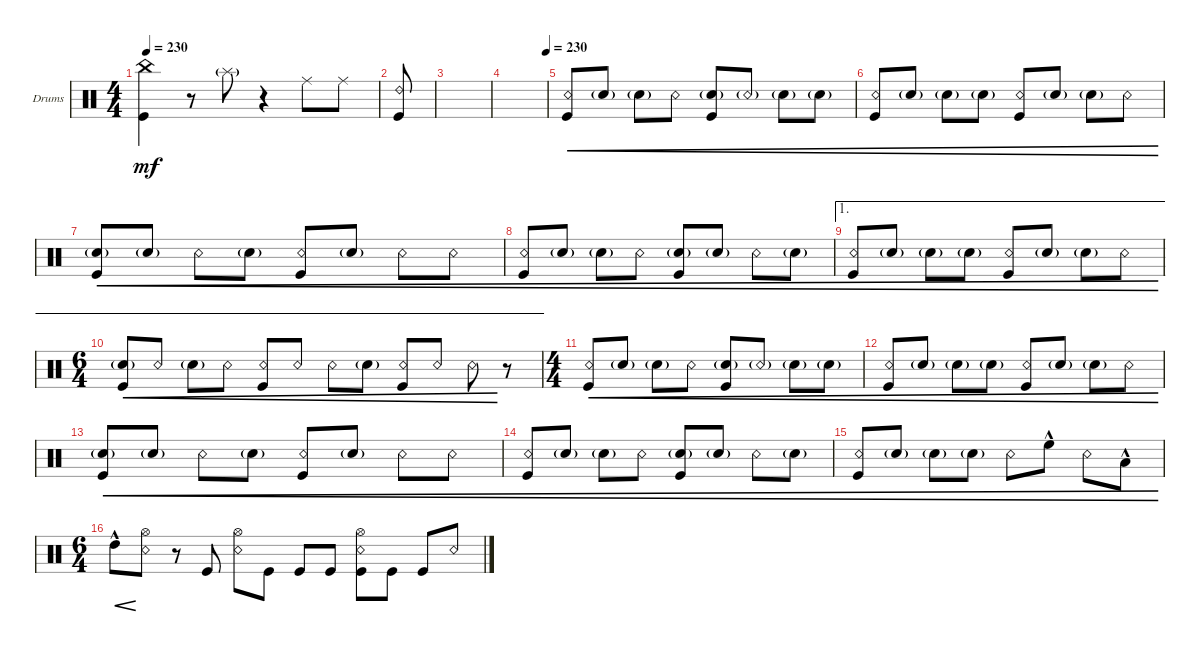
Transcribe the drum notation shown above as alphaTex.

\bracketExtendMode groupsimilarinstruments
\firstSystemTrackNameOrientation horizontal
\otherSystemsTrackNameOrientation horizontal
\track ("Drumkit" "Drums") {instrument percussion}
\staff {score}
\articulation defaults
\ts (4 4)
\tempo 230
\clef neutral
\ks c
("Kick (hit)" "China (hit)").4{dy mf} r.8 "Splash (hit)"{g}.8 r.4 "Ride (middle)".8 "Ride (middle)".8 |
("Ride (bell) 2" "Kick (hit)").8 |
|
\tempo (230 1)
|
("Snare (rim shot)" "Kick (hit)").8{cre} "Snare (hit) 2"{g}.8{cre} "Snare (hit) 2"{g}.8{cre} "Snare (rim shot)".8{cre} ("Snare (hit) 2"{g} "Kick (hit)").8{cre} "Snare (rim shot)"{g}.8{cre} "Snare (hit) 2"{g}.8{cre} "Snare (hit) 2"{g}.8{cre} |
("Kick (hit)" "Snare (rim shot)").8{cre} "Snare (hit) 2"{g}.8{cre} "Snare (hit) 2"{g}.8{cre} "Snare (hit) 2"{g}.8{cre} ("Snare (rim shot)" "Kick (hit)").8{cre} "Snare (hit) 2"{g}.8{cre} "Snare (hit) 2"{g}.8{cre} "Snare (rim shot)".8{cre} |
("Snare (hit) 2"{g} "Kick (hit)").8{cre} "Snare (hit) 2"{g}.8{cre} "Snare (rim shot)".8{cre} "Snare (hit) 2"{g}.8{cre} ("Snare (rim shot)" "Kick (hit)").8{cre} "Snare (hit) 2"{g}.8{cre} "Snare (rim shot)".8{cre} "Snare (rim shot)".8{cre} |
("Snare (rim shot)" "Kick (hit)").8{cre} "Snare (hit) 2"{g}.8{cre} "Snare (hit) 2"{g}.8{cre} "Snare (rim shot)".8{cre} ("Snare (hit) 2"{g} "Kick (hit)").8{cre} "Snare (hit) 2"{g}.8{cre} "Snare (rim shot)".8{cre} "Snare (hit) 2"{g}.8{cre} |
\ae 1
("Snare (rim shot)" "Kick (hit)").8{cre} "Snare (hit) 2"{g}.8{cre} "Snare (hit) 2"{g}.8{cre} "Snare (hit) 2"{g}.8{cre} ("Snare (rim shot)" "Kick (hit)").8{cre} "Snare (hit) 2"{g}.8{cre} "Snare (hit) 2"{g}.8{cre} "Snare (rim shot)".8{cre} |
\ae 1
\ts (6 4)
("Snare (hit) 2"{g} "Kick (hit)").8{cre} "Snare (rim shot)".8{cre} "Snare (hit) 2"{g}.8{cre} "Snare (rim shot)".8{cre} ("Snare (rim shot)" "Kick (hit)").8{cre} "Snare (rim shot)".8{cre} "Snare (rim shot)".8{cre} "Snare (hit) 2"{g}.8{cre} ("Snare (rim shot)" "Kick (hit)").8{cre} "Snare (rim shot)".8{cre} "Snare (rim shot)".8{cre} r.8 |
\ts (4 4)
("Snare (rim shot)" "Kick (hit)").8{cre} "Snare (hit) 2"{g}.8{cre} "Snare (hit) 2"{g}.8{cre} "Snare (rim shot)".8{cre} ("Snare (hit) 2"{g} "Kick (hit)").8{cre} "Snare (rim shot)"{g}.8{cre} "Snare (hit) 2"{g}.8{cre} "Snare (hit) 2"{g}.8{cre} |
("Kick (hit)" "Snare (rim shot)").8{cre} "Snare (hit) 2"{g}.8{cre} "Snare (hit) 2"{g}.8{cre} "Snare (hit) 2"{g}.8{cre} ("Snare (rim shot)" "Kick (hit)").8{cre} "Snare (hit) 2"{g}.8{cre} "Snare (hit) 2"{g}.8{cre} "Snare (rim shot)".8{cre} |
("Snare (hit) 2"{g} "Kick (hit)").8{cre} "Snare (hit) 2"{g}.8{cre} "Snare (rim shot)".8{cre} "Snare (hit) 2"{g}.8{cre} ("Snare (rim shot)" "Kick (hit)").8{cre} "Snare (hit) 2"{g}.8{cre} "Snare (rim shot)".8{cre} "Snare (rim shot)".8{cre} |
("Snare (rim shot)" "Kick (hit)").8{cre} "Snare (hit) 2"{g}.8{cre} "Snare (hit) 2"{g}.8{cre} "Snare (rim shot)".8{cre} ("Snare (hit) 2"{g} "Kick (hit)").8{cre} "Snare (hit) 2"{g}.8{cre} "Snare (rim shot)".8{cre} "Snare (hit) 2"{g}.8{cre} |
("Snare (rim shot)" "Kick (hit)").8{cre} "Snare (hit) 2"{g}.8{cre} "Snare (hit) 2"{g}.8{cre} "Snare (hit) 2"{g}.8{cre} "Snare (rim shot)".8{cre} "High Floor Tom (hit)"{hac}.8{cre} "Snare (rim shot)".8{cre} "Low Tom (hit)"{hac}.8{cre} |
\ts (6 4)
"High Tom (hit)"{hac}.8{cre} ("Snare (rim shot)" "Hi-Hat (open)").8 r.8 "Kick (hit)".8 ("Snare (rim shot)" "Hi-Hat (open)").8 "Kick (hit)".8 "Kick (hit)".8 "Kick (hit)".8 ("Kick (hit)" "Snare (rim shot)" "Hi-Hat (open)").8 "Kick (hit)".8 "Kick (hit)".8 "Snare (rim shot)".8
